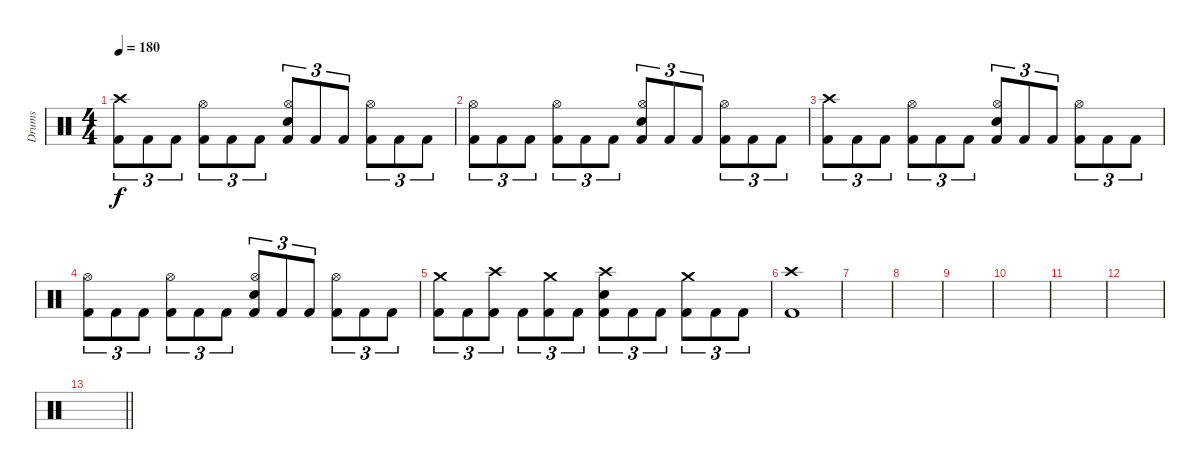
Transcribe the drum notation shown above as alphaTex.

\track ("Drums" "Drums") {instrument percussion}
\staff {score}
\articulation defaults
\ts (4 4)
\tempo 180
\clef neutral
\ks c
("Crash high (hit)" "Kick (hit) 2").8{tu (3 2) dy f} "Kick (hit) 2".8{tu (3 2)} "Kick (hit) 2".8{tu (3 2)} ("Hi-Hat (open)" "Kick (hit) 2").8{tu (3 2)} "Kick (hit) 2".8{tu (3 2)} "Kick (hit) 2".8{tu (3 2)} ("Hi-Hat (open)" "Electric Snare (hit)" "Kick (hit) 2").8{tu (3 2)} "Kick (hit) 2".8{tu (3 2)} "Kick (hit) 2".8{tu (3 2)} ("Hi-Hat (open)" "Kick (hit) 2").8{tu (3 2)} "Kick (hit) 2".8{tu (3 2)} "Kick (hit) 2".8{tu (3 2)} |
("Hi-Hat (open)" "Kick (hit) 2").8{tu (3 2)} "Kick (hit) 2".8{tu (3 2)} "Kick (hit) 2".8{tu (3 2)} ("Hi-Hat (open)" "Kick (hit) 2").8{tu (3 2)} "Kick (hit) 2".8{tu (3 2)} "Kick (hit) 2".8{tu (3 2)} ("Hi-Hat (open)" "Electric Snare (hit)" "Kick (hit) 2").8{tu (3 2)} "Kick (hit) 2".8{tu (3 2)} "Kick (hit) 2".8{tu (3 2)} ("Hi-Hat (open)" "Kick (hit) 2").8{tu (3 2)} "Kick (hit) 2".8{tu (3 2)} "Kick (hit) 2".8{tu (3 2)} |
("Crash high (hit)" "Kick (hit) 2").8{tu (3 2)} "Kick (hit) 2".8{tu (3 2)} "Kick (hit) 2".8{tu (3 2)} ("Hi-Hat (open)" "Kick (hit) 2").8{tu (3 2)} "Kick (hit) 2".8{tu (3 2)} "Kick (hit) 2".8{tu (3 2)} ("Hi-Hat (open)" "Electric Snare (hit)" "Kick (hit) 2").8{tu (3 2)} "Kick (hit) 2".8{tu (3 2)} "Kick (hit) 2".8{tu (3 2)} ("Hi-Hat (open)" "Kick (hit) 2").8{tu (3 2)} "Kick (hit) 2".8{tu (3 2)} "Kick (hit) 2".8{tu (3 2)} |
("Hi-Hat (open)" "Kick (hit) 2").8{tu (3 2)} "Kick (hit) 2".8{tu (3 2)} "Kick (hit) 2".8{tu (3 2)} ("Hi-Hat (open)" "Kick (hit) 2").8{tu (3 2)} "Kick (hit) 2".8{tu (3 2)} "Kick (hit) 2".8{tu (3 2)} ("Hi-Hat (open)" "Electric Snare (hit)" "Kick (hit) 2").8{tu (3 2)} "Kick (hit) 2".8{tu (3 2)} "Kick (hit) 2".8{tu (3 2)} ("Hi-Hat (open)" "Kick (hit) 2").8{tu (3 2)} "Kick (hit) 2".8{tu (3 2)} "Kick (hit) 2".8{tu (3 2)} |
("Crash medium (hit)" "Kick (hit) 2").8{tu (3 2)} "Kick (hit) 2".8{tu (3 2)} ("Crash high (hit)" "Kick (hit) 2").8{tu (3 2)} "Kick (hit) 2".8{tu (3 2)} ("Crash medium (hit)" "Kick (hit) 2").8{tu (3 2)} "Kick (hit) 2".8{tu (3 2)} ("Crash high (hit)" "Electric Snare (hit)" "Kick (hit) 2").8{tu (3 2)} "Kick (hit) 2".8{tu (3 2)} "Kick (hit) 2".8{tu (3 2)} ("Crash medium (hit)" "Kick (hit) 2").8{tu (3 2)} "Kick (hit) 2".8{tu (3 2)} "Kick (hit) 2".8{tu (3 2)} |
("Crash high (hit)" "Kick (hit) 2").1 |
|
|
|
|
|
|
\barLineRight lightlight
